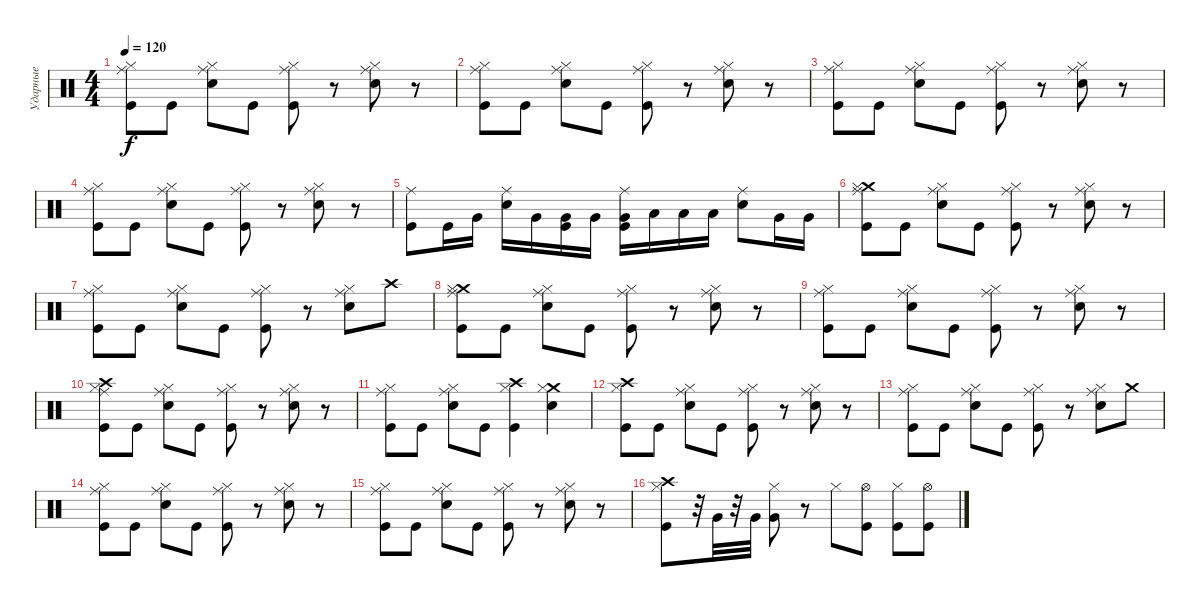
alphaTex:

\track ("Ударные" "Ударные") {instrument percussion}
\staff {score}
\articulation defaults
\ts (4 4)
\tempo 120
\clef neutral
\ks c
("Hi-Hat (closed)" "Ride (middle)" "Kick (hit)").8{dy f} "Kick (hit)".8 ("Hi-Hat (closed)" "Ride (middle)" "Snare (hit) 2").8 "Kick (hit)".8 ("Hi-Hat (closed)" "Ride (middle)" "Kick (hit)").8 r.8 ("Ride (middle)" "Hi-Hat (closed)" "Snare (hit) 2").8 r.8 |
("Ride (middle)" "Hi-Hat (closed)" "Kick (hit)").8 "Kick (hit)".8 ("Hi-Hat (closed)" "Ride (middle)" "Snare (hit) 2").8 "Kick (hit)".8 ("Ride (middle)" "Hi-Hat (closed)" "Kick (hit)").8 r.8 ("Ride (middle)" "Hi-Hat (closed)" "Snare (hit) 2").8 r.8 |
("Ride (middle)" "Hi-Hat (closed)" "Kick (hit)").8 "Kick (hit)".8 ("Ride (middle)" "Hi-Hat (closed)" "Snare (hit) 2").8 "Kick (hit)".8 ("Ride (middle)" "Hi-Hat (closed)" "Kick (hit)").8 r.8 ("Ride (middle)" "Hi-Hat (closed)" "Snare (hit) 2").8 r.8 |
("Ride (middle)" "Hi-Hat (closed)" "Kick (hit)").8 "Kick (hit)".8 ("Ride (middle)" "Hi-Hat (closed)" "Snare (hit) 2").8 "Kick (hit)".8 ("Ride (middle)" "Hi-Hat (closed)" "Kick (hit)").8 r.8 ("Ride (middle)" "Hi-Hat (closed)" "Snare (hit) 2").8 r.8 |
("Ride (middle)" "Kick (hit)").8 "Kick (hit)".16 "Very Low Tom (hit)".16 ("Ride (middle)" "Snare (hit) 2").16 "Very Low Tom (hit)".16 ("Very Low Tom (hit)" "Kick (hit)").16 "Very Low Tom (hit)".16 ("Ride (middle)" "Very Low Tom (hit)" "Kick (hit)").16 "Low Floor Tom (hit)".16 "Low Floor Tom (hit)".16 "Low Floor Tom (hit)".16 ("Ride (middle)" "Snare (hit) 2").8 "Very Low Tom (hit)".16 "Very Low Tom (hit)".16 |
("Ride (middle)" "Crash medium (hit)" "Hi-Hat (closed)" "Kick (hit)").8 "Kick (hit)".8 ("Ride (middle)" "Hi-Hat (closed)" "Snare (hit) 2").8 "Kick (hit)".8 ("Ride (middle)" "Hi-Hat (closed)" "Kick (hit)").8 r.8 ("Ride (middle)" "Hi-Hat (closed)" "Snare (hit) 2").8 r.8 |
("Ride (middle)" "Hi-Hat (closed)" "Kick (hit)").8 "Kick (hit)".8 ("Ride (middle)" "Hi-Hat (closed)" "Snare (hit) 2").8 "Kick (hit)".8 ("Ride (middle)" "Hi-Hat (closed)" "Kick (hit)").8 r.8 ("Ride (middle)" "Hi-Hat (closed)" "Snare (hit) 2").8 "Crash high (hit)".8 |
("Ride (middle)" "Crash medium (hit)" "Hi-Hat (closed)" "Kick (hit)").8 "Kick (hit)".8 ("Ride (middle)" "Hi-Hat (closed)" "Snare (hit) 2").8 "Kick (hit)".8 ("Ride (middle)" "Hi-Hat (closed)" "Kick (hit)").8 r.8 ("Ride (middle)" "Hi-Hat (closed)" "Snare (hit) 2").8 r.8 |
("Ride (middle)" "Hi-Hat (closed)" "Kick (hit)").8 "Kick (hit)".8 ("Ride (middle)" "Hi-Hat (closed)" "Snare (hit) 2").8 "Kick (hit)".8 ("Ride (middle)" "Hi-Hat (closed)" "Kick (hit)").8 r.8 ("Ride (middle)" "Hi-Hat (closed)" "Snare (hit) 2").8 r.8 |
("Ride (middle)" "Crash high (hit)" "Hi-Hat (closed)" "Kick (hit)").8 "Kick (hit)".8 ("Ride (middle)" "Hi-Hat (closed)" "Snare (hit) 2").8 "Kick (hit)".8 ("Ride (middle)" "Hi-Hat (closed)" "Kick (hit)").8 r.8 ("Ride (middle)" "Hi-Hat (closed)" "Snare (hit) 2").8 r.8 |
("Ride (middle)" "Hi-Hat (closed)" "Kick (hit)").8 "Kick (hit)".8 ("Ride (middle)" "Hi-Hat (closed)" "Snare (hit) 2").8 "Kick (hit)".8 ("Crash high (hit)" "Hi-Hat (closed)" "Kick (hit)").4 ("Crash medium (hit)" "Hi-Hat (closed)" "Snare (hit) 2").4 |
("Crash high (hit)" "Hi-Hat (closed)" "Kick (hit)").8 "Kick (hit)".8 ("Ride (middle)" "Hi-Hat (closed)" "Snare (hit) 2").8 "Kick (hit)".8 ("Ride (middle)" "Hi-Hat (closed)" "Kick (hit)").8 r.8 ("Ride (middle)" "Hi-Hat (closed)" "Snare (hit) 2").8 r.8 |
("Ride (middle)" "Hi-Hat (closed)" "Kick (hit)").8 "Kick (hit)".8 ("Ride (middle)" "Hi-Hat (closed)" "Snare (hit) 2").8 "Kick (hit)".8 ("Ride (middle)" "Hi-Hat (closed)" "Kick (hit)").8 r.8 ("Ride (middle)" "Hi-Hat (closed)" "Snare (hit) 2").8 "Crash medium (hit)".8 |
("Ride (middle)" "Hi-Hat (closed)" "Kick (hit)").8 "Kick (hit)".8 ("Ride (middle)" "Hi-Hat (closed)" "Snare (hit) 2").8 "Kick (hit)".8 ("Ride (middle)" "Hi-Hat (closed)" "Kick (hit)").8 r.8 ("Ride (middle)" "Hi-Hat (closed)" "Snare (hit) 2").8 r.8 |
("Ride (middle)" "Hi-Hat (closed)" "Kick (hit)").8 "Kick (hit)".8 ("Ride (middle)" "Hi-Hat (closed)" "Snare (hit) 2").8 "Kick (hit)".8 ("Ride (middle)" "Hi-Hat (closed)" "Kick (hit)").8 r.8 ("Ride (middle)" "Hi-Hat (closed)" "Snare (hit) 2").8 r.8 |
("Crash high (hit)" "Hi-Hat (closed)" "Kick (hit)").8 r.32 "Very Low Tom (hit)".32 r.32 "Very Low Tom (hit)".32 ("Very Low Tom (hit)" "Hi-Hat (closed)").8 r.8 "Hi-Hat (closed)".8 ("Kick (hit)" "Hi-Hat (open)").8 ("Hi-Hat (closed)" "Kick (hit)").8 ("Hi-Hat (open)" "Kick (hit)").8
